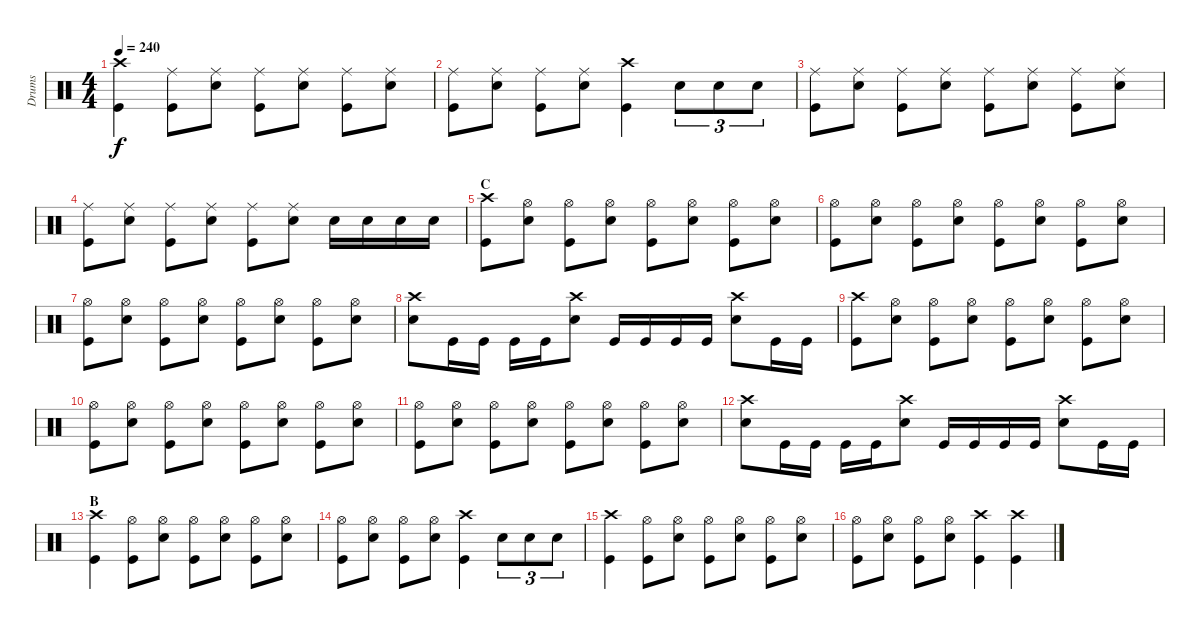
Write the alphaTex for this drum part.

\track ("Drums" "Drums") {instrument percussion}
\staff {score}
\articulation defaults
\ts (4 4)
\tempo 240
\clef neutral
\ks c
("Crash high (hit)" "Kick (hit)").4{dy f} ("Ride (middle)" "Kick (hit)").8 ("Ride (middle)" "Snare (hit) 2").8 ("Ride (middle)" "Kick (hit)").8 ("Ride (middle)" "Snare (hit) 2").8 ("Ride (middle)" "Kick (hit)").8 ("Ride (middle)" "Snare (hit) 2").8 |
("Ride (middle)" "Kick (hit)").8 ("Ride (middle)" "Snare (hit) 2").8 ("Ride (middle)" "Kick (hit)").8 ("Ride (middle)" "Snare (hit) 2").8 ("Crash high (hit)" "Kick (hit)").4 "Snare (hit) 2".8{tu (3 2)} "Snare (hit) 2".8{tu (3 2)} "Snare (hit) 2".8{tu (3 2)} |
("Ride (middle)" "Kick (hit)").8 ("Ride (middle)" "Snare (hit) 2").8 ("Ride (middle)" "Kick (hit)").8 ("Ride (middle)" "Snare (hit) 2").8 ("Ride (middle)" "Kick (hit)").8 ("Ride (middle)" "Snare (hit) 2").8 ("Ride (middle)" "Kick (hit)").8 ("Ride (middle)" "Snare (hit) 2").8 |
("Ride (middle)" "Kick (hit)").8 ("Ride (middle)" "Snare (hit) 2").8 ("Ride (middle)" "Kick (hit)").8 ("Ride (middle)" "Snare (hit) 2").8 ("Ride (middle)" "Kick (hit)").8 ("Ride (middle)" "Snare (hit) 2").8 "Snare (hit) 2".16 "Snare (hit) 2".16 "Snare (hit) 2".16 "Snare (hit) 2".16 |
\section ("" "C")
("Crash high (hit)" "Kick (hit)").8 ("Hi-Hat (open)" "Snare (hit) 2").8 ("Hi-Hat (open)" "Kick (hit)").8 ("Hi-Hat (open)" "Snare (hit) 2").8 ("Hi-Hat (open)" "Kick (hit)").8 ("Hi-Hat (open)" "Snare (hit) 2").8 ("Hi-Hat (open)" "Kick (hit)").8 ("Hi-Hat (open)" "Snare (hit) 2").8 |
("Hi-Hat (open)" "Kick (hit)").8 ("Hi-Hat (open)" "Snare (hit) 2").8 ("Hi-Hat (open)" "Kick (hit)").8 ("Hi-Hat (open)" "Snare (hit) 2").8 ("Hi-Hat (open)" "Kick (hit)").8 ("Hi-Hat (open)" "Snare (hit) 2").8 ("Hi-Hat (open)" "Kick (hit)").8 ("Hi-Hat (open)" "Snare (hit) 2").8 |
("Hi-Hat (open)" "Kick (hit)").8 ("Hi-Hat (open)" "Snare (hit) 2").8 ("Hi-Hat (open)" "Kick (hit)").8 ("Hi-Hat (open)" "Snare (hit) 2").8 ("Hi-Hat (open)" "Kick (hit)").8 ("Hi-Hat (open)" "Snare (hit) 2").8 ("Hi-Hat (open)" "Kick (hit)").8 ("Hi-Hat (open)" "Snare (hit) 2").8 |
("Crash high (hit)" "Snare (hit) 2").8 "Kick (hit)".16 "Kick (hit)".16 "Kick (hit)".16 "Kick (hit)".16 ("Crash high (hit)" "Snare (hit) 2").8 "Kick (hit)".16 "Kick (hit)".16 "Kick (hit)".16 "Kick (hit)".16 ("Crash high (hit)" "Snare (hit) 2").8 "Kick (hit)".16 "Kick (hit)".16 |
("Crash high (hit)" "Kick (hit)").8 ("Hi-Hat (open)" "Snare (hit) 2").8 ("Hi-Hat (open)" "Kick (hit)").8 ("Hi-Hat (open)" "Snare (hit) 2").8 ("Hi-Hat (open)" "Kick (hit)").8 ("Hi-Hat (open)" "Snare (hit) 2").8 ("Hi-Hat (open)" "Kick (hit)").8 ("Hi-Hat (open)" "Snare (hit) 2").8 |
("Hi-Hat (open)" "Kick (hit)").8 ("Hi-Hat (open)" "Snare (hit) 2").8 ("Hi-Hat (open)" "Kick (hit)").8 ("Hi-Hat (open)" "Snare (hit) 2").8 ("Hi-Hat (open)" "Kick (hit)").8 ("Hi-Hat (open)" "Snare (hit) 2").8 ("Hi-Hat (open)" "Kick (hit)").8 ("Hi-Hat (open)" "Snare (hit) 2").8 |
("Hi-Hat (open)" "Kick (hit)").8 ("Hi-Hat (open)" "Snare (hit) 2").8 ("Hi-Hat (open)" "Kick (hit)").8 ("Hi-Hat (open)" "Snare (hit) 2").8 ("Hi-Hat (open)" "Kick (hit)").8 ("Hi-Hat (open)" "Snare (hit) 2").8 ("Hi-Hat (open)" "Kick (hit)").8 ("Hi-Hat (open)" "Snare (hit) 2").8 |
("Crash high (hit)" "Snare (hit) 2").8 "Kick (hit)".16 "Kick (hit)".16 "Kick (hit)".16 "Kick (hit)".16 ("Crash high (hit)" "Snare (hit) 2").8 "Kick (hit)".16 "Kick (hit)".16 "Kick (hit)".16 "Kick (hit)".16 ("Crash high (hit)" "Snare (hit) 2").8 "Kick (hit)".16 "Kick (hit)".16 |
\section ("" "B")
("Crash high (hit)" "Kick (hit)").4 ("Hi-Hat (open)" "Kick (hit)").8 ("Hi-Hat (open)" "Snare (hit) 2").8 ("Hi-Hat (open)" "Kick (hit)").8 ("Hi-Hat (open)" "Snare (hit) 2").8 ("Hi-Hat (open)" "Kick (hit)").8 ("Hi-Hat (open)" "Snare (hit) 2").8 |
("Hi-Hat (open)" "Kick (hit)").8 ("Hi-Hat (open)" "Snare (hit) 2").8 ("Hi-Hat (open)" "Kick (hit)").8 ("Hi-Hat (open)" "Snare (hit) 2").8 ("Crash high (hit)" "Kick (hit)").4 "Snare (hit) 2".8{tu (3 2)} "Snare (hit) 2".8{tu (3 2)} "Snare (hit) 2".8{tu (3 2)} |
("Crash high (hit)" "Kick (hit)").4 ("Hi-Hat (open)" "Kick (hit)").8 ("Hi-Hat (open)" "Snare (hit) 2").8 ("Hi-Hat (open)" "Kick (hit)").8 ("Hi-Hat (open)" "Snare (hit) 2").8 ("Hi-Hat (open)" "Kick (hit)").8 ("Hi-Hat (open)" "Snare (hit) 2").8 |
("Hi-Hat (open)" "Kick (hit)").8 ("Hi-Hat (open)" "Snare (hit) 2").8 ("Hi-Hat (open)" "Kick (hit)").8 ("Hi-Hat (open)" "Snare (hit) 2").8 ("Crash high (hit)" "Kick (hit)").4 ("Crash high (hit)" "Kick (hit)").4
